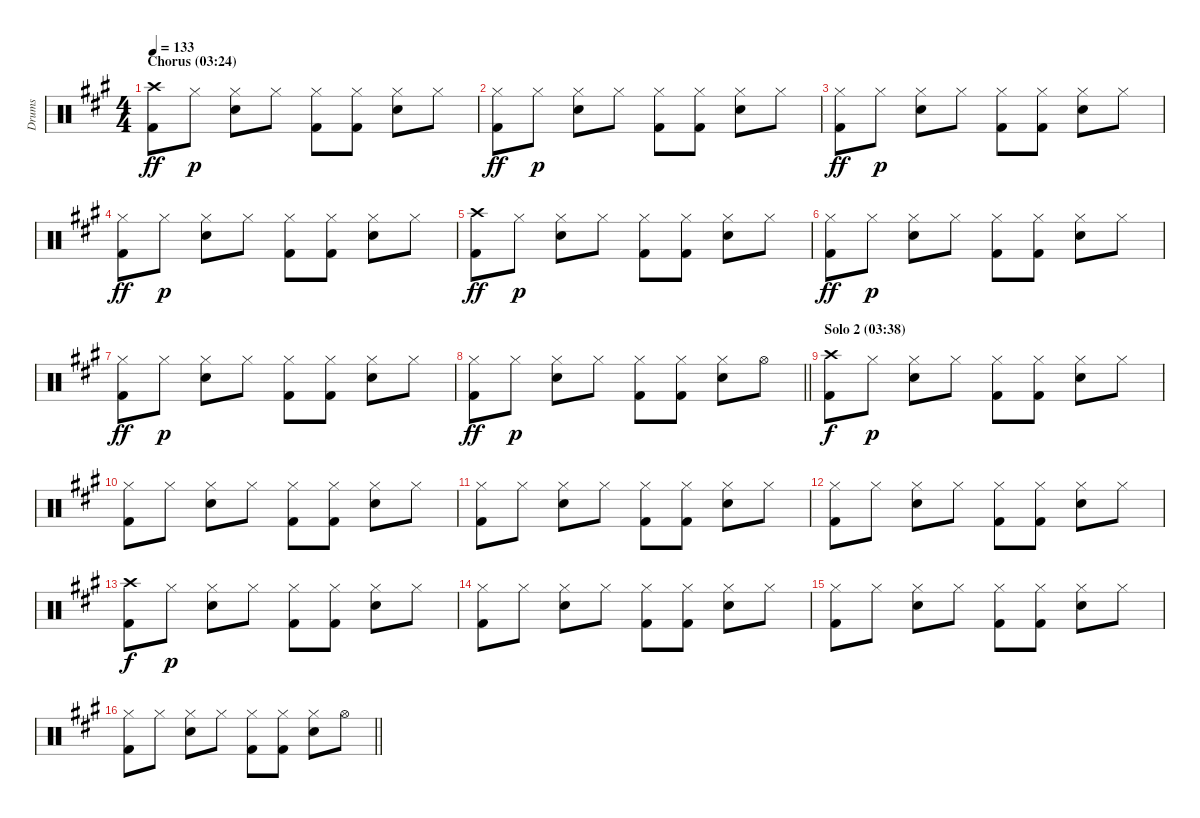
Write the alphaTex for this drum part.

\track ("Drums" "Drums") {instrument percussion}
\staff {score}
\articulation defaults
\ts (4 4)
\section ("" "Chorus (03:24)")
\tempo 133
\clef neutral
\ks a
("Crash high (hit)" "Kick (hit) 2").8{dy ff} "Hi-Hat (closed)".8{dy p} ("Hi-Hat (closed)" "Snare (hit) 2").8 "Hi-Hat (closed)".8 ("Hi-Hat (closed)" "Kick (hit) 2").8 ("Hi-Hat (closed)" "Kick (hit) 2").8 ("Hi-Hat (closed)" "Snare (hit) 2").8 "Hi-Hat (closed)".8 |
("Hi-Hat (closed)" "Kick (hit) 2").8{dy ff} "Hi-Hat (closed)".8{dy p} ("Hi-Hat (closed)" "Snare (hit) 2").8 "Hi-Hat (closed)".8 ("Hi-Hat (closed)" "Kick (hit) 2").8 ("Hi-Hat (closed)" "Kick (hit) 2").8 ("Hi-Hat (closed)" "Snare (hit) 2").8 "Hi-Hat (closed)".8 |
("Hi-Hat (closed)" "Kick (hit) 2").8{dy ff} "Hi-Hat (closed)".8{dy p} ("Hi-Hat (closed)" "Snare (hit) 2").8 "Hi-Hat (closed)".8 ("Hi-Hat (closed)" "Kick (hit) 2").8 ("Hi-Hat (closed)" "Kick (hit) 2").8 ("Hi-Hat (closed)" "Snare (hit) 2").8 "Hi-Hat (closed)".8 |
("Hi-Hat (closed)" "Kick (hit) 2").8{dy ff} "Hi-Hat (closed)".8{dy p} ("Hi-Hat (closed)" "Snare (hit) 2").8 "Hi-Hat (closed)".8 ("Hi-Hat (closed)" "Kick (hit) 2").8 ("Hi-Hat (closed)" "Kick (hit) 2").8 ("Hi-Hat (closed)" "Snare (hit) 2").8 "Hi-Hat (closed)".8 |
("Crash high (hit)" "Kick (hit) 2").8{dy ff} "Hi-Hat (closed)".8{dy p} ("Hi-Hat (closed)" "Snare (hit) 2").8 "Hi-Hat (closed)".8 ("Hi-Hat (closed)" "Kick (hit) 2").8 ("Hi-Hat (closed)" "Kick (hit) 2").8 ("Hi-Hat (closed)" "Snare (hit) 2").8 "Hi-Hat (closed)".8 |
("Hi-Hat (closed)" "Kick (hit) 2").8{dy ff} "Hi-Hat (closed)".8{dy p} ("Hi-Hat (closed)" "Snare (hit) 2").8 "Hi-Hat (closed)".8 ("Hi-Hat (closed)" "Kick (hit) 2").8 ("Hi-Hat (closed)" "Kick (hit) 2").8 ("Hi-Hat (closed)" "Snare (hit) 2").8 "Hi-Hat (closed)".8 |
("Hi-Hat (closed)" "Kick (hit) 2").8{dy ff} "Hi-Hat (closed)".8{dy p} ("Hi-Hat (closed)" "Snare (hit) 2").8 "Hi-Hat (closed)".8 ("Hi-Hat (closed)" "Kick (hit) 2").8 ("Hi-Hat (closed)" "Kick (hit) 2").8 ("Hi-Hat (closed)" "Snare (hit) 2").8 "Hi-Hat (closed)".8 |
\barLineRight lightlight
("Hi-Hat (closed)" "Kick (hit) 2").8{dy ff} "Hi-Hat (closed)".8{dy p} ("Hi-Hat (closed)" "Snare (hit) 2").8 "Hi-Hat (closed)".8 ("Hi-Hat (closed)" "Kick (hit) 2").8 ("Hi-Hat (closed)" "Kick (hit) 2").8 ("Hi-Hat (closed)" "Snare (hit) 2").8 "Hi-Hat (open)".8 |
\section ("" "Solo 2 (03:38)")
("Crash high (hit)" "Kick (hit) 2").8{dy f} "Hi-Hat (closed)".8{dy p} ("Hi-Hat (closed)" "Snare (hit) 2").8 "Hi-Hat (closed)".8 ("Hi-Hat (closed)" "Kick (hit) 2").8 ("Hi-Hat (closed)" "Kick (hit) 2").8 ("Hi-Hat (closed)" "Snare (hit) 2").8 "Hi-Hat (closed)".8 |
("Hi-Hat (closed)" "Kick (hit) 2").8 "Hi-Hat (closed)".8 ("Hi-Hat (closed)" "Snare (hit) 2").8 "Hi-Hat (closed)".8 ("Hi-Hat (closed)" "Kick (hit) 2").8 ("Hi-Hat (closed)" "Kick (hit) 2").8 ("Hi-Hat (closed)" "Snare (hit) 2").8 "Hi-Hat (closed)".8 |
("Hi-Hat (closed)" "Kick (hit) 2").8 "Hi-Hat (closed)".8 ("Hi-Hat (closed)" "Snare (hit) 2").8 "Hi-Hat (closed)".8 ("Hi-Hat (closed)" "Kick (hit) 2").8 ("Hi-Hat (closed)" "Kick (hit) 2").8 ("Hi-Hat (closed)" "Snare (hit) 2").8 "Hi-Hat (closed)".8 |
("Hi-Hat (closed)" "Kick (hit) 2").8 "Hi-Hat (closed)".8 ("Hi-Hat (closed)" "Snare (hit) 2").8 "Hi-Hat (closed)".8 ("Hi-Hat (closed)" "Kick (hit) 2").8 ("Hi-Hat (closed)" "Kick (hit) 2").8 ("Hi-Hat (closed)" "Snare (hit) 2").8 "Hi-Hat (closed)".8 |
("Crash high (hit)" "Kick (hit) 2").8{dy f} "Hi-Hat (closed)".8{dy p} ("Hi-Hat (closed)" "Snare (hit) 2").8 "Hi-Hat (closed)".8 ("Hi-Hat (closed)" "Kick (hit) 2").8 ("Hi-Hat (closed)" "Kick (hit) 2").8 ("Hi-Hat (closed)" "Snare (hit) 2").8 "Hi-Hat (closed)".8 |
("Hi-Hat (closed)" "Kick (hit) 2").8 "Hi-Hat (closed)".8 ("Hi-Hat (closed)" "Snare (hit) 2").8 "Hi-Hat (closed)".8 ("Hi-Hat (closed)" "Kick (hit) 2").8 ("Hi-Hat (closed)" "Kick (hit) 2").8 ("Hi-Hat (closed)" "Snare (hit) 2").8 "Hi-Hat (closed)".8 |
("Hi-Hat (closed)" "Kick (hit) 2").8 "Hi-Hat (closed)".8 ("Hi-Hat (closed)" "Snare (hit) 2").8 "Hi-Hat (closed)".8 ("Hi-Hat (closed)" "Kick (hit) 2").8 ("Hi-Hat (closed)" "Kick (hit) 2").8 ("Hi-Hat (closed)" "Snare (hit) 2").8 "Hi-Hat (closed)".8 |
\barLineRight lightlight
("Hi-Hat (closed)" "Kick (hit) 2").8 "Hi-Hat (closed)".8 ("Hi-Hat (closed)" "Snare (hit) 2").8 "Hi-Hat (closed)".8 ("Hi-Hat (closed)" "Kick (hit) 2").8 ("Hi-Hat (closed)" "Kick (hit) 2").8 ("Hi-Hat (closed)" "Snare (hit) 2").8 "Hi-Hat (open)".8
